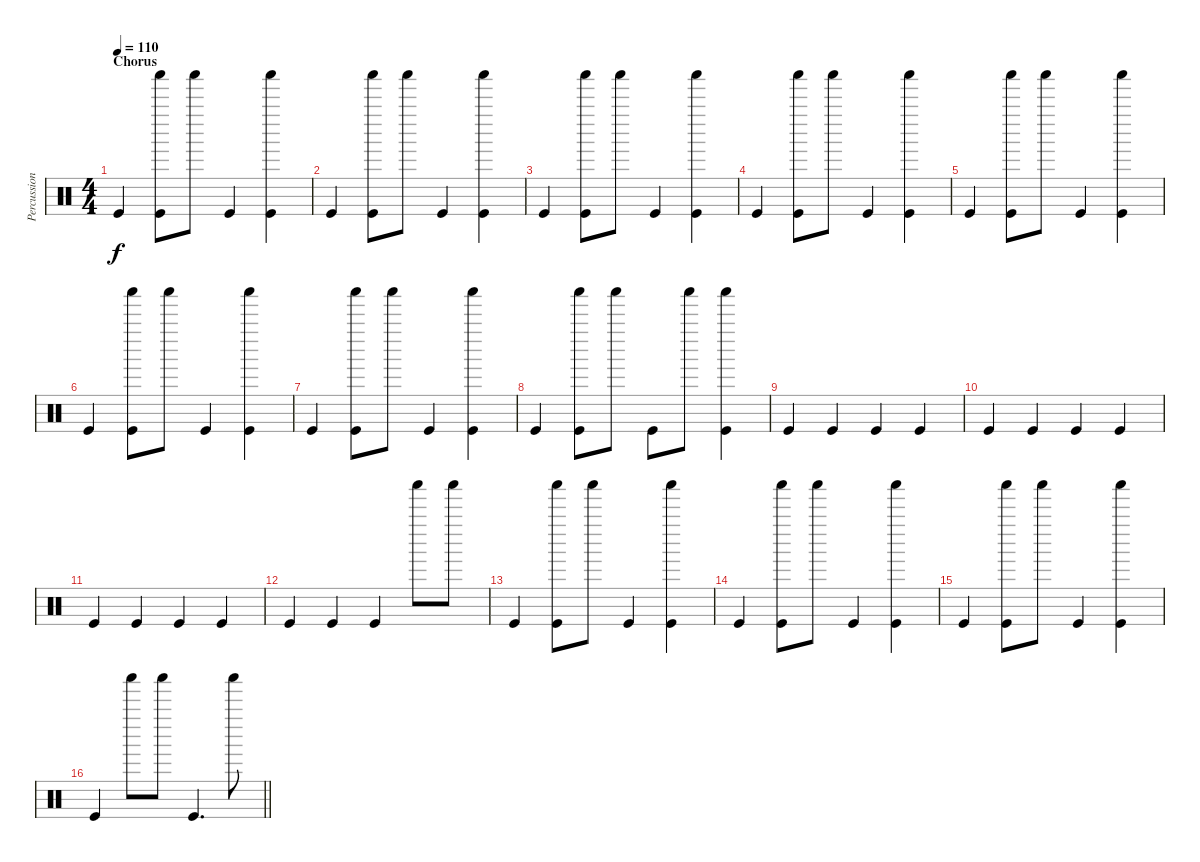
\track ("Percussion" "Percussion") {instrument percussion}
\staff {score}
\articulation defaults
\ts (4 4)
\section ("" "Chorus")
\tempo 110
\clef neutral
\ks c "Kick (hit)".4{dy f}
("Shaker (hit)" "Kick (hit)").8 "Shaker (hit)".8 "Kick (hit)".4 ("Shaker (hit)" "Kick (hit)").4 |
"Kick (hit)".4 ("Shaker (hit)" "Kick (hit)").8 "Shaker (hit)".8 "Kick (hit)".4 ("Shaker (hit)" "Kick (hit)").4 |
"Kick (hit)".4 ("Shaker (hit)" "Kick (hit)").8 "Shaker (hit)".8 "Kick (hit)".4 ("Shaker (hit)" "Kick (hit)").4 |
"Kick (hit)".4 ("Shaker (hit)" "Kick (hit)").8 "Shaker (hit)".8 "Kick (hit)".4 ("Shaker (hit)" "Kick (hit)").4 |
"Kick (hit)".4 ("Shaker (hit)" "Kick (hit)").8 "Shaker (hit)".8 "Kick (hit)".4 ("Shaker (hit)" "Kick (hit)").4 |
"Kick (hit)".4 ("Shaker (hit)" "Kick (hit)").8 "Shaker (hit)".8 "Kick (hit)".4 ("Shaker (hit)" "Kick (hit)").4 |
"Kick (hit)".4 ("Shaker (hit)" "Kick (hit)").8 "Shaker (hit)".8 "Kick (hit)".4 ("Shaker (hit)" "Kick (hit)").4 |
"Kick (hit)".4 ("Shaker (hit)" "Kick (hit)").8 "Shaker (hit)".8 "Kick (hit)".8 "Shaker (hit)".8 ("Shaker (hit)" "Kick (hit)").4 |
"Kick (hit)".4 "Kick (hit)".4 "Kick (hit)".4 "Kick (hit)".4 |
"Kick (hit)".4 "Kick (hit)".4 "Kick (hit)".4 "Kick (hit)".4 |
"Kick (hit)".4 "Kick (hit)".4 "Kick (hit)".4 "Kick (hit)".4 |
"Kick (hit)".4 "Kick (hit)".4 "Kick (hit)".4 "Shaker (hit)".8 "Shaker (hit)".8 |
"Kick (hit)".4 ("Shaker (hit)" "Kick (hit)").8 "Shaker (hit)".8 "Kick (hit)".4 ("Shaker (hit)" "Kick (hit)").4 |
"Kick (hit)".4 ("Shaker (hit)" "Kick (hit)").8 "Shaker (hit)".8 "Kick (hit)".4 ("Shaker (hit)" "Kick (hit)").4 |
"Kick (hit)".4 ("Shaker (hit)" "Kick (hit)").8 "Shaker (hit)".8 "Kick (hit)".4 ("Shaker (hit)" "Kick (hit)").4 |
\barLineRight lightlight "Kick (hit)".4 "Shaker (hit)".8 "Shaker (hit)".8 "Kick (hit)".4{d} "Shaker (hit)".8
